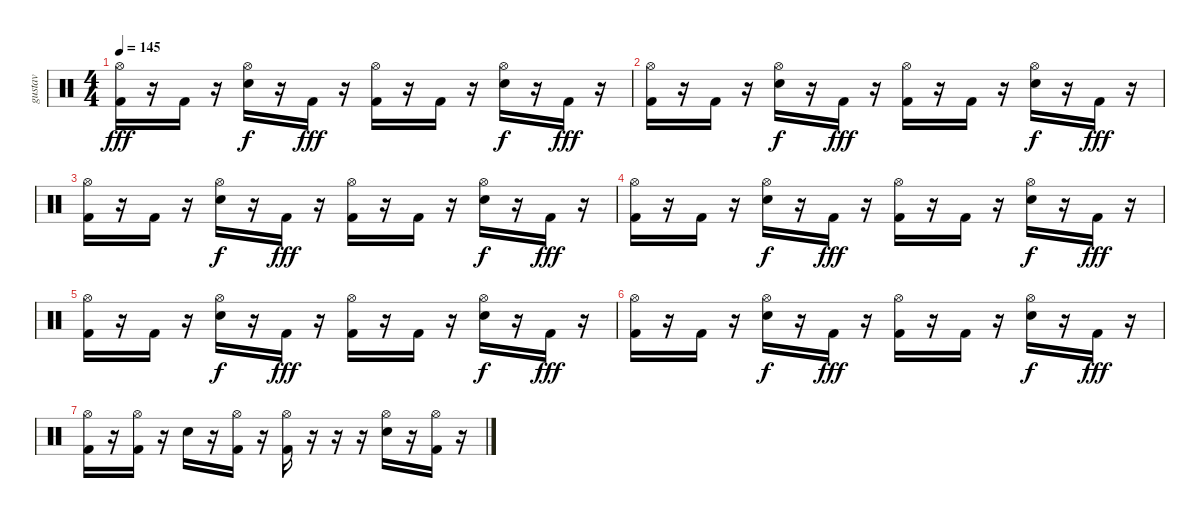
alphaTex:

\track ("gustav" "gustav") {instrument percussion}
\staff {score}
\articulation defaults
\ts (4 4)
\tempo 145
\clef neutral
\ks c
("Hi-Hat (open)" "Kick (hit) 2").16{dy fff} r.16 "Kick (hit) 2".16 r.16 ("Hi-Hat (open)" "Electric Snare (hit)").16{dy f} r.16 "Kick (hit) 2".16{dy fff} r.16 ("Hi-Hat (open)" "Kick (hit) 2").16 r.16 "Kick (hit) 2".16 r.16 ("Hi-Hat (open)" "Electric Snare (hit)").16{dy f} r.16 "Kick (hit) 2".16{dy fff} r.16 |
("Hi-Hat (open)" "Kick (hit) 2").16 r.16 "Kick (hit) 2".16 r.16 ("Hi-Hat (open)" "Electric Snare (hit)").16{dy f} r.16 "Kick (hit) 2".16{dy fff} r.16 ("Hi-Hat (open)" "Kick (hit) 2").16 r.16 "Kick (hit) 2".16 r.16 ("Hi-Hat (open)" "Electric Snare (hit)").16{dy f} r.16 "Kick (hit) 2".16{dy fff} r.16 |
("Hi-Hat (open)" "Kick (hit) 2").16 r.16 "Kick (hit) 2".16 r.16 ("Hi-Hat (open)" "Electric Snare (hit)").16{dy f} r.16 "Kick (hit) 2".16{dy fff} r.16 ("Hi-Hat (open)" "Kick (hit) 2").16 r.16 "Kick (hit) 2".16 r.16 ("Hi-Hat (open)" "Electric Snare (hit)").16{dy f} r.16 "Kick (hit) 2".16{dy fff} r.16 |
("Hi-Hat (open)" "Kick (hit) 2").16 r.16 "Kick (hit) 2".16 r.16 ("Hi-Hat (open)" "Electric Snare (hit)").16{dy f} r.16 "Kick (hit) 2".16{dy fff} r.16 ("Hi-Hat (open)" "Kick (hit) 2").16 r.16 "Kick (hit) 2".16 r.16 ("Hi-Hat (open)" "Electric Snare (hit)").16{dy f} r.16 "Kick (hit) 2".16{dy fff} r.16 |
("Hi-Hat (open)" "Kick (hit) 2").16 r.16 "Kick (hit) 2".16 r.16 ("Hi-Hat (open)" "Electric Snare (hit)").16{dy f} r.16 "Kick (hit) 2".16{dy fff} r.16 ("Hi-Hat (open)" "Kick (hit) 2").16 r.16 "Kick (hit) 2".16 r.16 ("Hi-Hat (open)" "Electric Snare (hit)").16{dy f} r.16 "Kick (hit) 2".16{dy fff} r.16 |
("Hi-Hat (open)" "Kick (hit) 2").16 r.16 "Kick (hit) 2".16 r.16 ("Hi-Hat (open)" "Electric Snare (hit)").16{dy f} r.16 "Kick (hit) 2".16{dy fff} r.16 ("Hi-Hat (open)" "Kick (hit) 2").16 r.16 "Kick (hit) 2".16 r.16 ("Hi-Hat (open)" "Electric Snare (hit)").16{dy f} r.16 "Kick (hit) 2".16{dy fff} r.16 |
("Hi-Hat (open)" "Kick (hit) 2").16 r.16 ("Hi-Hat (open)" "Kick (hit) 2").16 r.16 "Electric Snare (hit)".16 r.16 ("Hi-Hat (open)" "Kick (hit) 2").16 r.16 ("Hi-Hat (open)" "Kick (hit) 2").16 r.16 r.16 r.16 ("Hi-Hat (open)" "Electric Snare (hit)").16 r.16 ("Hi-Hat (open)" "Kick (hit) 2").16 r.16
